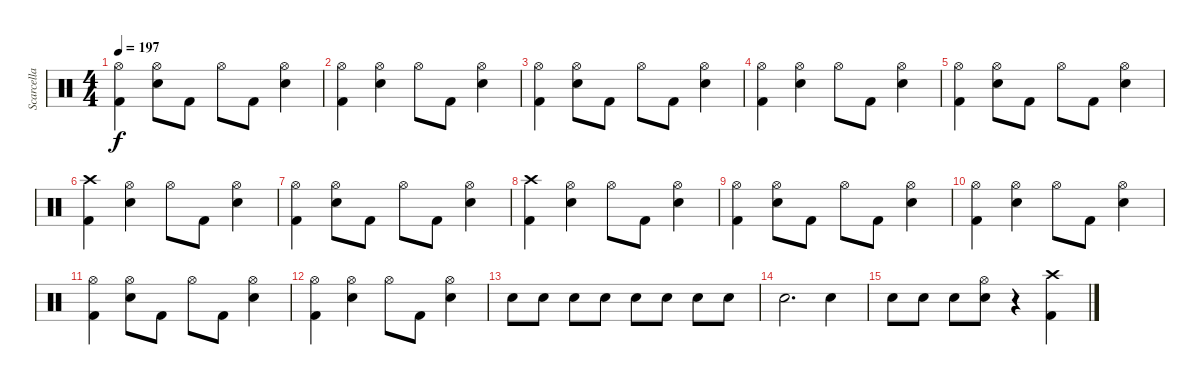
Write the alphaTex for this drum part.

\track ("Scarcella" "Scarcella") {instrument percussion}
\staff {score}
\articulation defaults
\ts (4 4)
\tempo 197
\clef neutral
\ks c
("Hi-Hat (open)" "Kick (hit) 2").4{dy f} ("Hi-Hat (open)" "Electric Snare (hit)").8 "Kick (hit) 2".8 "Hi-Hat (open)".8 "Kick (hit) 2".8 ("Hi-Hat (open)" "Electric Snare (hit)").4 |
("Hi-Hat (open)" "Kick (hit) 2").4 ("Hi-Hat (open)" "Electric Snare (hit)").4 "Hi-Hat (open)".8 "Kick (hit) 2".8 ("Hi-Hat (open)" "Electric Snare (hit)").4 |
("Hi-Hat (open)" "Kick (hit) 2").4 ("Hi-Hat (open)" "Electric Snare (hit)").8 "Kick (hit) 2".8 "Hi-Hat (open)".8 "Kick (hit) 2".8 ("Hi-Hat (open)" "Electric Snare (hit)").4 |
("Hi-Hat (open)" "Kick (hit) 2").4 ("Hi-Hat (open)" "Electric Snare (hit)").4 "Hi-Hat (open)".8 "Kick (hit) 2".8 ("Hi-Hat (open)" "Electric Snare (hit)").4 |
("Hi-Hat (open)" "Kick (hit) 2").4 ("Hi-Hat (open)" "Electric Snare (hit)").8 "Kick (hit) 2".8 "Hi-Hat (open)".8 "Kick (hit) 2".8 ("Hi-Hat (open)" "Electric Snare (hit)").4 |
("Crash high (hit)" "Kick (hit) 2").4 ("Hi-Hat (open)" "Electric Snare (hit)").4 "Hi-Hat (open)".8 "Kick (hit) 2".8 ("Hi-Hat (open)" "Electric Snare (hit)").4 |
("Hi-Hat (open)" "Kick (hit) 2").4 ("Hi-Hat (open)" "Electric Snare (hit)").8 "Kick (hit) 2".8 "Hi-Hat (open)".8 "Kick (hit) 2".8 ("Hi-Hat (open)" "Electric Snare (hit)").4 |
("Crash high (hit)" "Kick (hit) 2").4 ("Hi-Hat (open)" "Electric Snare (hit)").4 "Hi-Hat (open)".8 "Kick (hit) 2".8 ("Hi-Hat (open)" "Electric Snare (hit)").4 |
("Hi-Hat (open)" "Kick (hit) 2").4 ("Hi-Hat (open)" "Electric Snare (hit)").8 "Kick (hit) 2".8 "Hi-Hat (open)".8 "Kick (hit) 2".8 ("Hi-Hat (open)" "Electric Snare (hit)").4 |
("Hi-Hat (open)" "Kick (hit) 2").4 ("Hi-Hat (open)" "Electric Snare (hit)").4 "Hi-Hat (open)".8 "Kick (hit) 2".8 ("Hi-Hat (open)" "Electric Snare (hit)").4 |
("Hi-Hat (open)" "Kick (hit) 2").4 ("Hi-Hat (open)" "Electric Snare (hit)").8 "Kick (hit) 2".8 "Hi-Hat (open)".8 "Kick (hit) 2".8 ("Hi-Hat (open)" "Electric Snare (hit)").4 |
("Hi-Hat (open)" "Kick (hit) 2").4 ("Hi-Hat (open)" "Electric Snare (hit)").4 "Hi-Hat (open)".8 "Kick (hit) 2".8 ("Hi-Hat (open)" "Electric Snare (hit)").4 |
"Electric Snare (hit)".8 "Electric Snare (hit)".8 "Electric Snare (hit)".8 "Electric Snare (hit)".8 "Electric Snare (hit)".8 "Electric Snare (hit)".8 "Electric Snare (hit)".8 "Electric Snare (hit)".8 |
"Electric Snare (hit)".2{d} "Electric Snare (hit)".4 |
"Electric Snare (hit)".8 "Electric Snare (hit)".8 "Electric Snare (hit)".8 ("Hi-Hat (open)" "Electric Snare (hit)").8 r.4 ("Crash high (hit)" "Kick (hit) 2").4
